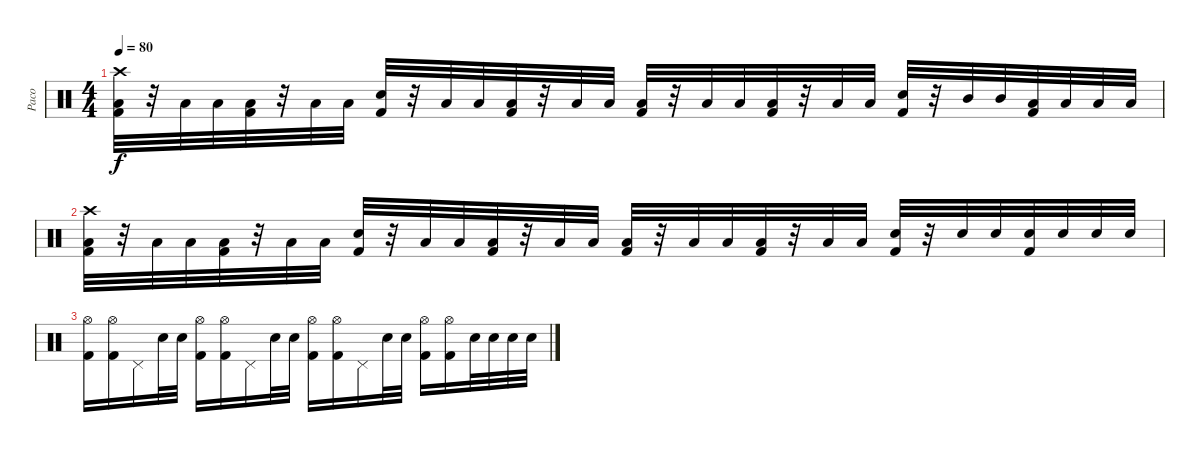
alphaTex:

\track ("Paco" "Paco") {instrument percussion}
\staff {score}
\articulation defaults
\ts (4 4)
\tempo 80
\clef neutral
\ks c
("Crash high (hit)" "Low Floor Tom (hit)" "Kick (hit) 2").32{dy f} r.32 "Low Floor Tom (hit)".32 "Low Floor Tom (hit)".32 ("Low Floor Tom (hit)" "Kick (hit) 2").32 r.32 "Low Floor Tom (hit)".32 "Low Floor Tom (hit)".32 ("Electric Snare (hit)" "Kick (hit) 2").32 r.32 "Low Floor Tom (hit)".32 "Low Floor Tom (hit)".32 ("Low Floor Tom (hit)" "Kick (hit) 2").32 r.32 "Low Floor Tom (hit)".32 "Low Floor Tom (hit)".32 ("Low Floor Tom (hit)" "Kick (hit) 2").32 r.32 "Low Floor Tom (hit)".32 "Low Floor Tom (hit)".32 ("Low Floor Tom (hit)" "Kick (hit) 2").32 r.32 "Low Floor Tom (hit)".32 "Low Floor Tom (hit)".32 ("Electric Snare (hit)" "Kick (hit) 2").32 r.32 "Mid Tom (hit)".32 "Mid Tom (hit)".32 ("Low Tom (hit)" "Kick (hit) 2").32 "Low Tom (hit)".32 "Low Floor Tom (hit)".32 "Low Floor Tom (hit)".32 |
("Crash high (hit)" "Low Floor Tom (hit)" "Kick (hit) 2").32 r.32 "Low Floor Tom (hit)".32 "Low Floor Tom (hit)".32 ("Low Floor Tom (hit)" "Kick (hit) 2").32 r.32 "Low Floor Tom (hit)".32 "Low Floor Tom (hit)".32 ("Electric Snare (hit)" "Kick (hit) 2").32 r.32 "Low Floor Tom (hit)".32 "Low Floor Tom (hit)".32 ("Low Floor Tom (hit)" "Kick (hit) 2").32 r.32 "Low Floor Tom (hit)".32 "Low Floor Tom (hit)".32 ("Low Floor Tom (hit)" "Kick (hit) 2").32 r.32 "Low Floor Tom (hit)".32 "Low Floor Tom (hit)".32 ("Low Floor Tom (hit)" "Kick (hit) 2").32 r.32 "Low Floor Tom (hit)".32 "Low Floor Tom (hit)".32 ("Electric Snare (hit)" "Kick (hit) 2").32 r.32 "Electric Snare (hit)".32 "Electric Snare (hit)".32 ("Electric Snare (hit)" "Kick (hit) 2").32 "Electric Snare (hit)".32 "Electric Snare (hit)".32 "Electric Snare (hit)".32 |
("Hi-Hat (open)" "Kick (hit) 2").16 ("Hi-Hat (open)" "Kick (hit) 2").16 "Pedal Hi-Hat (hit)".16 "Electric Snare (hit)".32 "Electric Snare (hit)".32 ("Hi-Hat (open)" "Kick (hit) 2").16 ("Hi-Hat (open)" "Kick (hit) 2").16 "Pedal Hi-Hat (hit)".16 "Electric Snare (hit)".32 "Electric Snare (hit)".32 ("Hi-Hat (open)" "Kick (hit) 2").16 ("Hi-Hat (open)" "Kick (hit) 2").16 "Pedal Hi-Hat (hit)".16 "Electric Snare (hit)".32 "Electric Snare (hit)".32 ("Hi-Hat (open)" "Kick (hit) 2").16 ("Hi-Hat (open)" "Kick (hit) 2").16 "Electric Snare (hit)".32 "Electric Snare (hit)".32 "Electric Snare (hit)".32 "Electric Snare (hit)".32
